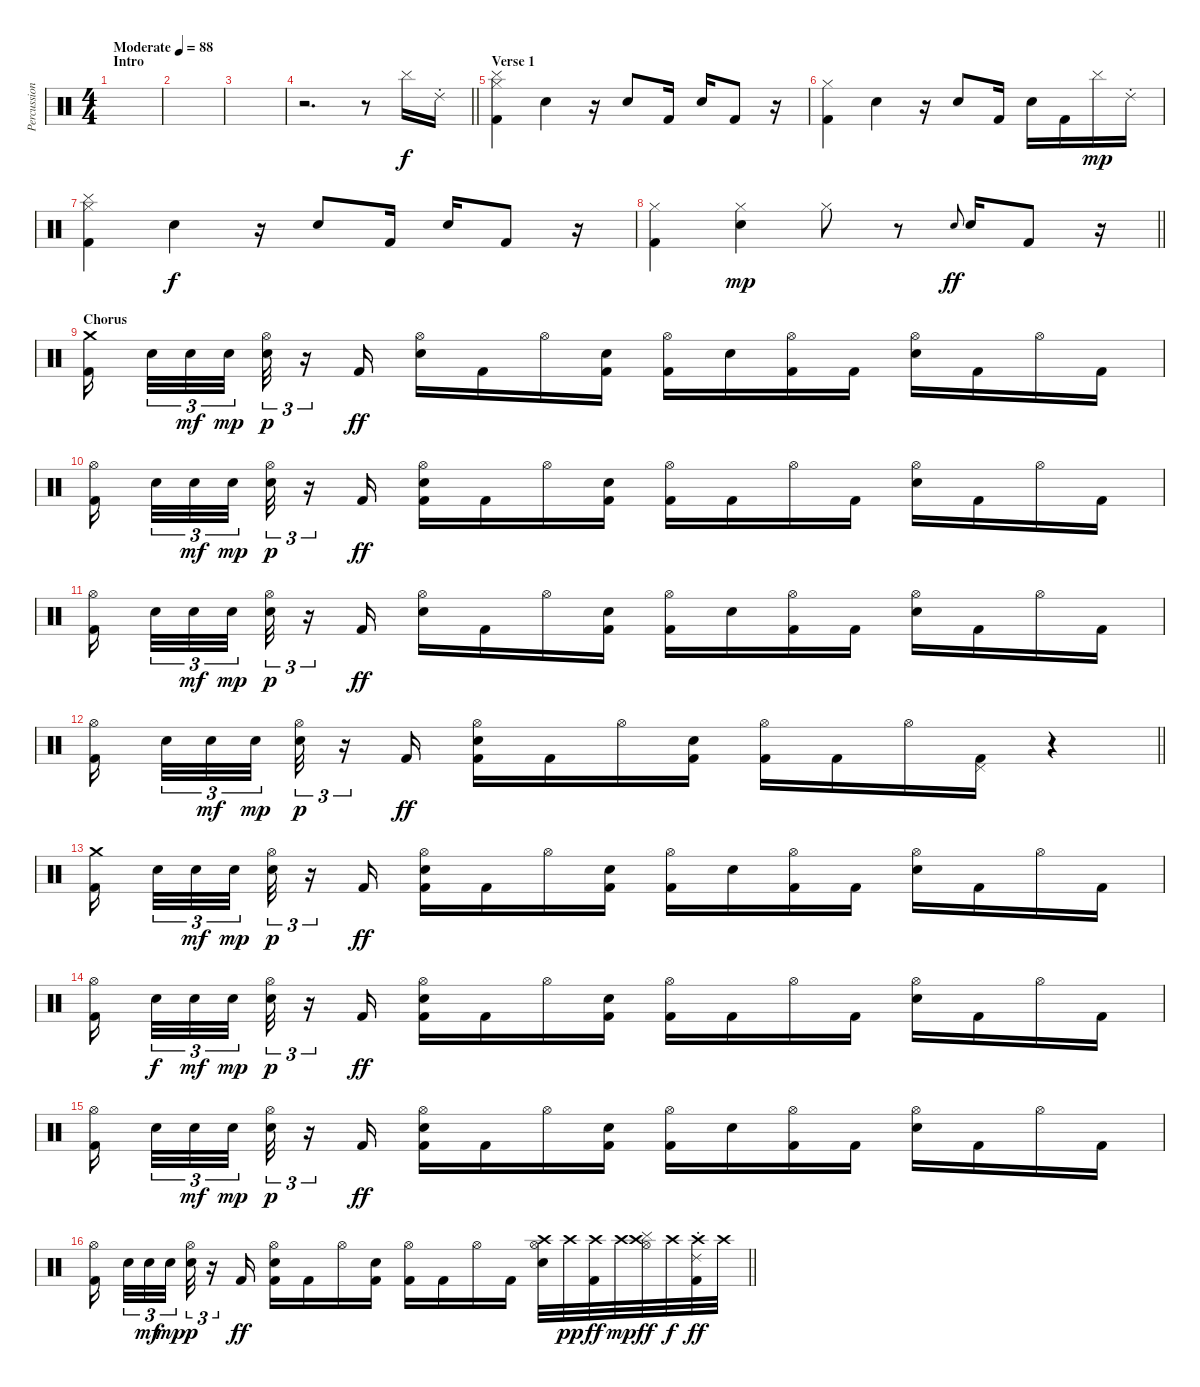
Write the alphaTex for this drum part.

\track ("Percussion" "Percussion") {instrument percussion}
\staff {score}
\articulation defaults
\ts (4 4)
\section ("" "Intro")
\tempo (88 "Moderate")
\clef neutral
\ks c
|
|
|
\barLineRight lightlight
r.2{d} r.8 "Cymbal (hit)".16 "Ride (choke) 2".16 |
\section ("" "Verse 1")
("Cymbal (hit)" "Hi-Hat (closed)" "Kick (hit) 2").4 "Snare (hit) 2".4{dy f} r.16 "Snare (hit) 2".8 "Kick (hit) 2".16 "Snare (hit) 2".16 "Kick (hit) 2".8 r.16 |
("Hi-Hat (closed)" "Kick (hit) 2").4 "Snare (hit) 2".4 r.16 "Snare (hit) 2".8 "Kick (hit) 2".16 "Snare (hit) 2".16 "Kick (hit) 2".16 "Cymbal (hit)".16{dy mp} "Ride (choke) 2".16 |
("Cymbal (hit)" "Hi-Hat (closed)" "Kick (hit) 2").4 "Snare (hit) 2".4{dy f} r.16 "Snare (hit) 2".8 "Kick (hit) 2".16 "Snare (hit) 2".16 "Kick (hit) 2".8 r.16 |
\barLineRight lightlight
("Hi-Hat (closed)" "Kick (hit) 2").4{volume 12} ("Hi-Hat (closed)" "Snare (hit) 2").4{dy mp} "Hi-Hat (closed)".8 r.8 "Snare (hit) 2".8{gr onbeat dy ff} "Electric Snare (hit)".16 "Kick (hit) 2".8 r.16 |
\section ("" "Chorus")
("Crash medium (hit)" "Kick (hit) 2").16{beam splitsecondary} "Snare (hit) 2".32{tu (3 2)} "Snare (hit) 2".32{tu (3 2) dy mf} "Snare (hit) 2".32{tu (3 2) dy mp beam splitsecondary} ("Hi-Hat (open)" "Snare (hit) 2").32{tu (3 2) dy p} r.16{tu (3 2)} "Kick (hit) 2".16{dy ff} ("Hi-Hat (open)" "Snare (hit) 2").16 "Kick (hit) 2".16 "Hi-Hat (open)".16 ("Electric Snare (hit)" "Kick (hit) 2").16 ("Hi-Hat (open)" "Kick (hit) 2").16 "Snare (hit) 2".16 ("Hi-Hat (open)" "Kick (hit) 2").16 "Kick (hit) 2".16 ("Hi-Hat (open)" "Electric Snare (hit)").16 "Kick (hit) 2".16 "Hi-Hat (open)".16 "Kick (hit) 2".16 |
("Hi-Hat (open)" "Kick (hit) 2").16{beam splitsecondary} "Snare (hit) 2".32{tu (3 2)} "Snare (hit) 2".32{tu (3 2) dy mf} "Snare (hit) 2".32{tu (3 2) dy mp beam splitsecondary} ("Hi-Hat (open)" "Snare (hit) 2").32{tu (3 2) dy p} r.16{tu (3 2)} "Kick (hit) 2".16{dy ff} ("Hi-Hat (open)" "Electric Snare (hit)" "Kick (hit) 2").16 "Kick (hit) 2".16 "Hi-Hat (open)".16 ("Snare (hit) 2" "Kick (hit) 2").16 ("Hi-Hat (open)" "Kick (hit) 2").16 "Kick (hit) 2".16 "Hi-Hat (open)".16 "Kick (hit) 2".16 ("Hi-Hat (open)" "Electric Snare (hit)").16 "Kick (hit) 2".16 "Hi-Hat (open)".16 "Kick (hit) 2".16 |
("Hi-Hat (open)" "Kick (hit) 2").16{beam splitsecondary} "Snare (hit) 2".32{tu (3 2)} "Snare (hit) 2".32{tu (3 2) dy mf} "Snare (hit) 2".32{tu (3 2) dy mp beam splitsecondary} ("Hi-Hat (open)" "Snare (hit) 2").32{tu (3 2) dy p} r.16{tu (3 2)} "Kick (hit) 2".16{dy ff} ("Hi-Hat (open)" "Snare (hit) 2").16 "Kick (hit) 2".16 "Hi-Hat (open)".16 ("Electric Snare (hit)" "Kick (hit) 2").16 ("Hi-Hat (open)" "Kick (hit) 2").16 "Snare (hit) 2".16 ("Hi-Hat (open)" "Kick (hit) 2").16 "Kick (hit) 2".16 ("Hi-Hat (open)" "Electric Snare (hit)").16 "Kick (hit) 2".16 "Hi-Hat (open)".16 "Kick (hit) 2".16 |
\barLineRight lightlight
("Hi-Hat (open)" "Kick (hit) 2").16{beam splitsecondary} "Snare (hit) 2".32{tu (3 2)} "Snare (hit) 2".32{tu (3 2) dy mf} "Snare (hit) 2".32{tu (3 2) dy mp beam splitsecondary} ("Hi-Hat (open)" "Snare (hit) 2").32{tu (3 2) dy p} r.16{tu (3 2)} "Kick (hit) 2".16{dy ff} ("Hi-Hat (open)" "Electric Snare (hit)" "Kick (hit) 2").16 "Kick (hit) 2".16 "Hi-Hat (open)".16 ("Snare (hit) 2" "Kick (hit) 2").16 ("Hi-Hat (open)" "Kick (hit) 2").16 "Kick (hit) 2".16 "Hi-Hat (open)".16 ("Pedal Hi-Hat (hit)" "Kick (hit) 2").16 r.4 |
("Crash medium (hit)" "Kick (hit) 2").16{beam splitsecondary} "Snare (hit) 2".32{tu (3 2)} "Snare (hit) 2".32{tu (3 2) dy mf} "Snare (hit) 2".32{tu (3 2) dy mp beam splitsecondary} ("Hi-Hat (open)" "Snare (hit) 2").32{tu (3 2) dy p} r.16{tu (3 2)} "Kick (hit) 2".16{dy ff} ("Hi-Hat (open)" "Snare (hit) 2" "Kick (hit) 2").16 "Kick (hit) 2".16 "Hi-Hat (open)".16 ("Electric Snare (hit)" "Kick (hit) 2").16 ("Hi-Hat (open)" "Kick (hit) 2").16 "Snare (hit) 2".16 ("Hi-Hat (open)" "Kick (hit) 2").16 "Kick (hit) 2".16 ("Hi-Hat (open)" "Electric Snare (hit)").16 "Kick (hit) 2".16 "Hi-Hat (open)".16 "Kick (hit) 2".16 |
("Hi-Hat (open)" "Kick (hit) 2").16{beam splitsecondary} "Snare (hit) 2".32{tu (3 2) dy f} "Snare (hit) 2".32{tu (3 2) dy mf} "Snare (hit) 2".32{tu (3 2) dy mp beam splitsecondary} ("Hi-Hat (open)" "Snare (hit) 2").32{tu (3 2) dy p} r.16{tu (3 2)} "Kick (hit) 2".16{dy ff} ("Hi-Hat (open)" "Electric Snare (hit)" "Kick (hit) 2").16 "Kick (hit) 2".16 "Hi-Hat (open)".16 ("Snare (hit) 2" "Kick (hit) 2").16 ("Hi-Hat (open)" "Kick (hit) 2").16 "Kick (hit) 2".16 "Hi-Hat (open)".16 "Kick (hit) 2".16 ("Hi-Hat (open)" "Electric Snare (hit)").16 "Kick (hit) 2".16 "Hi-Hat (open)".16 "Kick (hit) 2".16 |
("Hi-Hat (open)" "Kick (hit) 2").16{beam splitsecondary} "Snare (hit) 2".32{tu (3 2)} "Snare (hit) 2".32{tu (3 2) dy mf} "Snare (hit) 2".32{tu (3 2) dy mp beam splitsecondary} ("Hi-Hat (open)" "Snare (hit) 2").32{tu (3 2) dy p} r.16{tu (3 2)} "Kick (hit) 2".16{dy ff} ("Hi-Hat (open)" "Snare (hit) 2" "Kick (hit) 2").16 "Kick (hit) 2".16 "Hi-Hat (open)".16 ("Electric Snare (hit)" "Kick (hit) 2").16 ("Hi-Hat (open)" "Kick (hit) 2").16 "Snare (hit) 2".16 ("Hi-Hat (open)" "Kick (hit) 2").16 "Kick (hit) 2".16 ("Hi-Hat (open)" "Electric Snare (hit)").16 "Kick (hit) 2".16 "Hi-Hat (open)".16 "Kick (hit) 2".16 |
\barLineRight lightlight
("Hi-Hat (open)" "Kick (hit) 2").16{beam splitsecondary} "Snare (hit) 2".32{tu (3 2)} "Snare (hit) 2".32{tu (3 2) dy mf} "Snare (hit) 2".32{tu (3 2) dy mp beam splitsecondary} ("Hi-Hat (open)" "Snare (hit) 2").32{tu (3 2) dy p} r.16{tu (3 2)} "Kick (hit) 2".16{dy ff} ("Hi-Hat (open)" "Electric Snare (hit)" "Kick (hit) 2").16 "Kick (hit) 2".16 "Hi-Hat (open)".16 ("Snare (hit) 2" "Kick (hit) 2").16 ("Hi-Hat (open)" "Kick (hit) 2").16 "Kick (hit) 2".16 "Hi-Hat (open)".16 "Kick (hit) 2".16 ("Crash high (hit)" "Hi-Hat (open)" "Electric Snare (hit)").32 "Crash high (hit)".32{dy pp} ("Crash high (hit)" "Kick (hit) 2").32{dy ff} "Crash high (hit)".32{dy mp} ("Cymbal (hit)" "Crash high (hit)" "Hi-Hat (open)").32{dy ff} "Crash high (hit)".32{dy f} ("Ride (choke) 2" "Crash high (hit)" "Kick (hit) 2").32{dy ff} "Crash high (hit)".32
